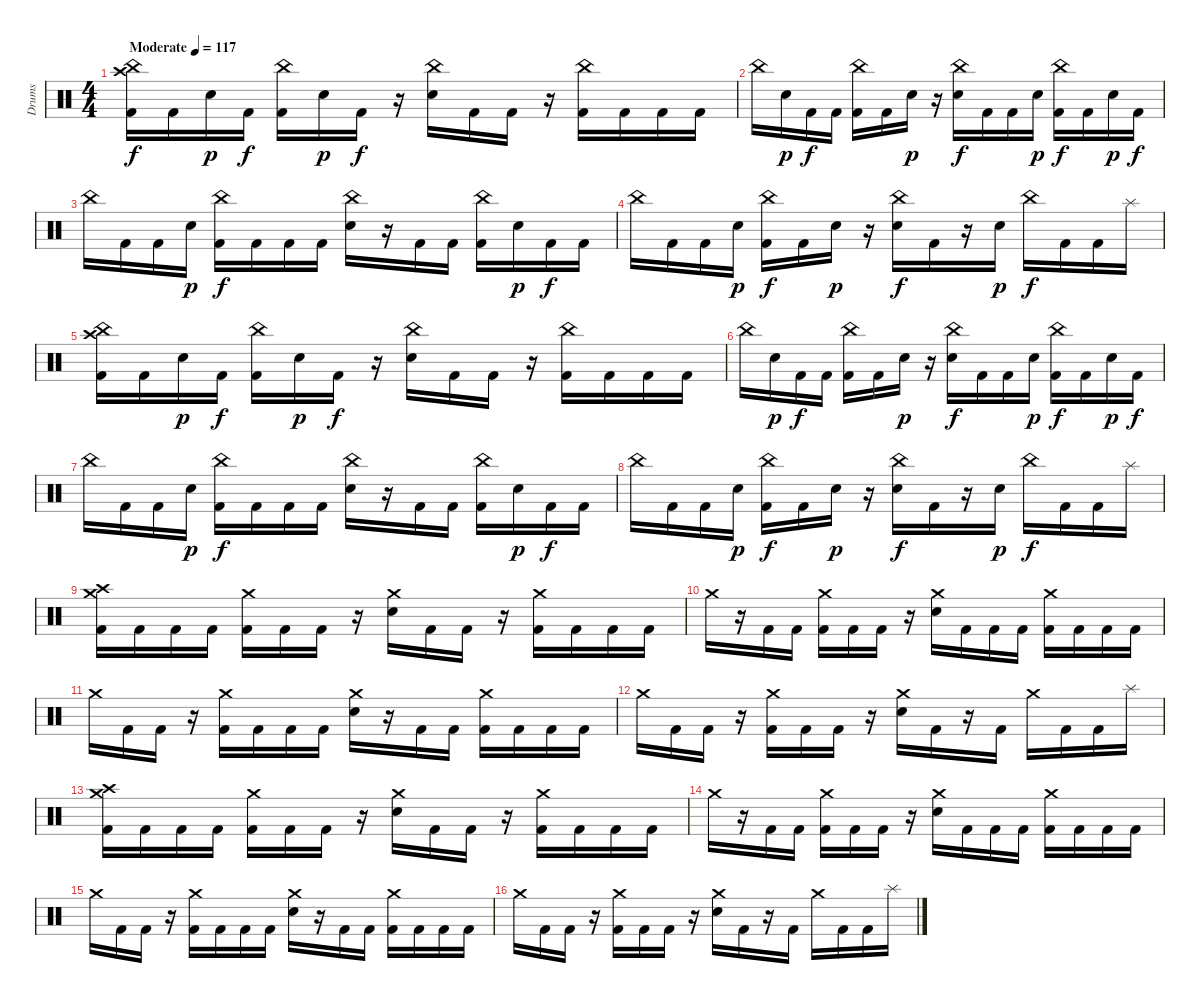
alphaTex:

\track ("Drums" "Drums") {instrument percussion}
\staff {score}
\articulation defaults
\ts (4 4)
\tempo (117 "Moderate")
\clef neutral
\ks c
("China (hit)" "Crash high (hit)" "Kick (hit) 2").16{dy f} "Kick (hit) 2".16 "Snare (hit) 2".16{dy p} "Kick (hit) 2".16{dy f} ("China (hit)" "Kick (hit) 2").16 "Snare (hit) 2".16{dy p} "Kick (hit) 2".16{dy f} r.16 ("China (hit)" "Snare (hit) 2").16 "Kick (hit) 2".16 "Kick (hit) 2".16 r.16 ("China (hit)" "Kick (hit) 2").16 "Kick (hit) 2".16 "Kick (hit) 2".16 "Kick (hit) 2".16 |
"China (hit)".16 "Snare (hit) 2".16{dy p} "Kick (hit) 2".16{dy f} "Kick (hit) 2".16 ("China (hit)" "Kick (hit) 2").16 "Kick (hit) 2".16 "Snare (hit) 2".16{dy p} r.16 ("China (hit)" "Snare (hit) 2").16{dy f} "Kick (hit) 2".16 "Kick (hit) 2".16 "Snare (hit) 2".16{dy p} ("China (hit)" "Kick (hit) 2").16{dy f} "Kick (hit) 2".16 "Snare (hit) 2".16{dy p} "Kick (hit) 2".16{dy f} |
"China (hit)".16 "Kick (hit) 2".16 "Kick (hit) 2".16 "Snare (hit) 2".16{dy p} ("China (hit)" "Kick (hit) 2").16{dy f} "Kick (hit) 2".16 "Kick (hit) 2".16 "Kick (hit) 2".16 ("China (hit)" "Snare (hit) 2").16 r.16 "Kick (hit) 2".16 "Kick (hit) 2".16 ("China (hit)" "Kick (hit) 2").16 "Snare (hit) 2".16{dy p} "Kick (hit) 2".16{dy f} "Kick (hit) 2".16 |
"China (hit)".16 "Kick (hit) 2".16 "Kick (hit) 2".16 "Snare (hit) 2".16{dy p} ("China (hit)" "Kick (hit) 2").16{dy f} "Kick (hit) 2".16 "Snare (hit) 2".16{dy p} r.16 ("China (hit)" "Snare (hit) 2").16{dy f} "Kick (hit) 2".16 r.16 "Snare (hit) 2".16{dy p} "China (hit)".16{dy f} "Kick (hit) 2".16 "Kick (hit) 2".16 "Splash (hit)".16 |
("China (hit)" "Crash high (hit)" "Kick (hit) 2").16 "Kick (hit) 2".16 "Snare (hit) 2".16{dy p} "Kick (hit) 2".16{dy f} ("China (hit)" "Kick (hit) 2").16 "Snare (hit) 2".16{dy p} "Kick (hit) 2".16{dy f} r.16 ("China (hit)" "Snare (hit) 2").16 "Kick (hit) 2".16 "Kick (hit) 2".16 r.16 ("China (hit)" "Kick (hit) 2").16 "Kick (hit) 2".16 "Kick (hit) 2".16 "Kick (hit) 2".16 |
"China (hit)".16 "Snare (hit) 2".16{dy p} "Kick (hit) 2".16{dy f} "Kick (hit) 2".16 ("China (hit)" "Kick (hit) 2").16 "Kick (hit) 2".16 "Snare (hit) 2".16{dy p} r.16 ("China (hit)" "Snare (hit) 2").16{dy f} "Kick (hit) 2".16 "Kick (hit) 2".16 "Snare (hit) 2".16{dy p} ("China (hit)" "Kick (hit) 2").16{dy f} "Kick (hit) 2".16 "Snare (hit) 2".16{dy p} "Kick (hit) 2".16{dy f} |
"China (hit)".16 "Kick (hit) 2".16 "Kick (hit) 2".16 "Snare (hit) 2".16{dy p} ("China (hit)" "Kick (hit) 2").16{dy f} "Kick (hit) 2".16 "Kick (hit) 2".16 "Kick (hit) 2".16 ("China (hit)" "Snare (hit) 2").16 r.16 "Kick (hit) 2".16 "Kick (hit) 2".16 ("China (hit)" "Kick (hit) 2").16 "Snare (hit) 2".16{dy p} "Kick (hit) 2".16{dy f} "Kick (hit) 2".16 |
"China (hit)".16 "Kick (hit) 2".16 "Kick (hit) 2".16 "Snare (hit) 2".16{dy p} ("China (hit)" "Kick (hit) 2").16{dy f} "Kick (hit) 2".16 "Snare (hit) 2".16{dy p} r.16 ("China (hit)" "Snare (hit) 2").16{dy f} "Kick (hit) 2".16 r.16 "Snare (hit) 2".16{dy p} "China (hit)".16{dy f} "Kick (hit) 2".16 "Kick (hit) 2".16 "Splash (hit)".16 |
("Crash medium (hit)" "Crash high (hit)" "Kick (hit) 2").16 "Kick (hit) 2".16 "Kick (hit) 2".16 "Kick (hit) 2".16 ("Crash medium (hit)" "Kick (hit) 2").16 "Kick (hit) 2".16 "Kick (hit) 2".16 r.16 ("Crash medium (hit)" "Snare (hit) 2").16 "Kick (hit) 2".16 "Kick (hit) 2".16 r.16 ("Crash medium (hit)" "Kick (hit) 2").16 "Kick (hit) 2".16 "Kick (hit) 2".16 "Kick (hit) 2".16 |
"Crash medium (hit)".16 r.16 "Kick (hit) 2".16 "Kick (hit) 2".16 ("Crash medium (hit)" "Kick (hit) 2").16 "Kick (hit) 2".16 "Kick (hit) 2".16 r.16 ("Crash medium (hit)" "Snare (hit) 2").16 "Kick (hit) 2".16 "Kick (hit) 2".16 "Kick (hit) 2".16 ("Crash medium (hit)" "Kick (hit) 2").16 "Kick (hit) 2".16 "Kick (hit) 2".16 "Kick (hit) 2".16 |
"Crash medium (hit)".16 "Kick (hit) 2".16 "Kick (hit) 2".16 r.16 ("Crash medium (hit)" "Kick (hit) 2").16 "Kick (hit) 2".16 "Kick (hit) 2".16 "Kick (hit) 2".16 ("Crash medium (hit)" "Snare (hit) 2").16 r.16 "Kick (hit) 2".16 "Kick (hit) 2".16 ("Crash medium (hit)" "Kick (hit) 2").16 "Kick (hit) 2".16 "Kick (hit) 2".16 "Kick (hit) 2".16 |
"Crash medium (hit)".16 "Kick (hit) 2".16 "Kick (hit) 2".16 r.16 ("Crash medium (hit)" "Kick (hit) 2").16 "Kick (hit) 2".16 "Kick (hit) 2".16 r.16 ("Crash medium (hit)" "Snare (hit) 2").16 "Kick (hit) 2".16 r.16 "Kick (hit) 2".16 "Crash medium (hit)".16 "Kick (hit) 2".16 "Kick (hit) 2".16 "Splash (hit)".16 |
("Crash medium (hit)" "Crash high (hit)" "Kick (hit) 2").16 "Kick (hit) 2".16 "Kick (hit) 2".16 "Kick (hit) 2".16 ("Crash medium (hit)" "Kick (hit) 2").16 "Kick (hit) 2".16 "Kick (hit) 2".16 r.16 ("Crash medium (hit)" "Snare (hit) 2").16 "Kick (hit) 2".16 "Kick (hit) 2".16 r.16 ("Crash medium (hit)" "Kick (hit) 2").16 "Kick (hit) 2".16 "Kick (hit) 2".16 "Kick (hit) 2".16 |
"Crash medium (hit)".16 r.16 "Kick (hit) 2".16 "Kick (hit) 2".16 ("Crash medium (hit)" "Kick (hit) 2").16 "Kick (hit) 2".16 "Kick (hit) 2".16 r.16 ("Crash medium (hit)" "Snare (hit) 2").16 "Kick (hit) 2".16 "Kick (hit) 2".16 "Kick (hit) 2".16 ("Crash medium (hit)" "Kick (hit) 2").16 "Kick (hit) 2".16 "Kick (hit) 2".16 "Kick (hit) 2".16 |
"Crash medium (hit)".16 "Kick (hit) 2".16 "Kick (hit) 2".16 r.16 ("Crash medium (hit)" "Kick (hit) 2").16 "Kick (hit) 2".16 "Kick (hit) 2".16 "Kick (hit) 2".16 ("Crash medium (hit)" "Snare (hit) 2").16 r.16 "Kick (hit) 2".16 "Kick (hit) 2".16 ("Crash medium (hit)" "Kick (hit) 2").16 "Kick (hit) 2".16 "Kick (hit) 2".16 "Kick (hit) 2".16 |
"Crash medium (hit)".16 "Kick (hit) 2".16 "Kick (hit) 2".16 r.16 ("Crash medium (hit)" "Kick (hit) 2").16 "Kick (hit) 2".16 "Kick (hit) 2".16 r.16 ("Crash medium (hit)" "Snare (hit) 2").16 "Kick (hit) 2".16 r.16 "Kick (hit) 2".16 "Crash medium (hit)".16 "Kick (hit) 2".16 "Kick (hit) 2".16 "Splash (hit)".16
